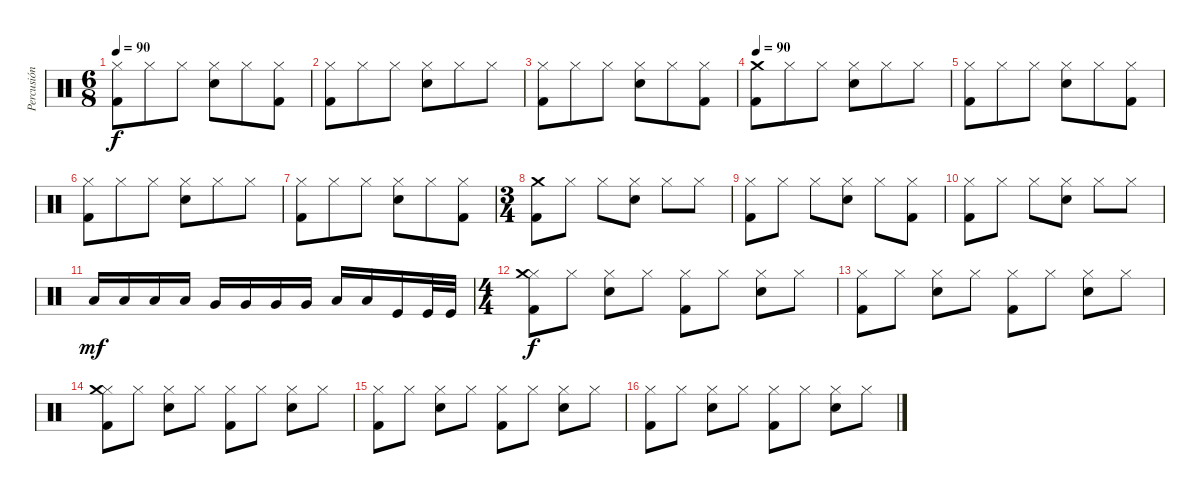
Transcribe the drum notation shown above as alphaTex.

\track ("Percusión" "Percusión") {instrument percussion}
\staff {score}
\articulation defaults
\ts (6 8)
\tempo 90
\clef neutral
\ks c
("Hi-Hat (closed)" "Kick (hit) 2").8{dy f} "Hi-Hat (closed)".8 "Hi-Hat (closed)".8 ("Hi-Hat (closed)" "Snare (hit) 2").8 "Hi-Hat (closed)".8 ("Hi-Hat (closed)" "Kick (hit) 2").8 |
("Hi-Hat (closed)" "Kick (hit) 2").8 "Hi-Hat (closed)".8 "Hi-Hat (closed)".8 ("Hi-Hat (closed)" "Snare (hit) 2").8 "Hi-Hat (closed)".8 "Hi-Hat (closed)".8 |
("Hi-Hat (closed)" "Kick (hit) 2").8 "Hi-Hat (closed)".8 "Hi-Hat (closed)".8 ("Hi-Hat (closed)" "Snare (hit) 2").8 "Hi-Hat (closed)".8 ("Hi-Hat (closed)" "Kick (hit) 2").8 |
\tempo 90
("Crash medium (hit)" "Kick (hit) 2").8 "Hi-Hat (closed)".8 "Hi-Hat (closed)".8 ("Hi-Hat (closed)" "Snare (hit) 2").8 "Hi-Hat (closed)".8 "Hi-Hat (closed)".8 |
("Hi-Hat (closed)" "Kick (hit) 2").8 "Hi-Hat (closed)".8 "Hi-Hat (closed)".8 ("Hi-Hat (closed)" "Snare (hit) 2").8 "Hi-Hat (closed)".8 ("Hi-Hat (closed)" "Kick (hit) 2").8 |
("Hi-Hat (closed)" "Kick (hit) 2").8 "Hi-Hat (closed)".8 "Hi-Hat (closed)".8 ("Hi-Hat (closed)" "Snare (hit) 2").8 "Hi-Hat (closed)".8 "Hi-Hat (closed)".8 |
("Hi-Hat (closed)" "Kick (hit) 2").8 "Hi-Hat (closed)".8 "Hi-Hat (closed)".8 ("Hi-Hat (closed)" "Snare (hit) 2").8 "Hi-Hat (closed)".8 ("Hi-Hat (closed)" "Kick (hit) 2").8 |
\ts (3 4)
("Crash medium (hit)" "Kick (hit) 2").8 "Hi-Hat (closed)".8 "Hi-Hat (closed)".8 ("Hi-Hat (closed)" "Snare (hit) 2").8 "Hi-Hat (closed)".8 "Hi-Hat (closed)".8 |
("Hi-Hat (closed)" "Kick (hit) 2").8 "Hi-Hat (closed)".8 "Hi-Hat (closed)".8 ("Hi-Hat (closed)" "Snare (hit) 2").8 "Hi-Hat (closed)".8 ("Hi-Hat (closed)" "Kick (hit) 2").8 |
("Hi-Hat (closed)" "Kick (hit) 2").8 "Hi-Hat (closed)".8 "Hi-Hat (closed)".8 ("Hi-Hat (closed)" "Snare (hit) 2").8 "Hi-Hat (closed)".8 "Hi-Hat (closed)".8 |
"Low Tom (hit)".16{dy mf} "Low Tom (hit)".16 "Low Tom (hit)".16 "Low Tom (hit)".16 "Very Low Tom (hit)".16 "Very Low Tom (hit)".16 "Very Low Tom (hit)".16 "Very Low Tom (hit)".16 "Low Floor Tom (hit)".16 "Low Floor Tom (hit)".16 "Kick (hit)".16 "Kick (hit)".32 "Kick (hit)".32 |
\ts (4 4)
("Kick (hit) 2" "Hi-Hat (closed)" "Crash medium (hit)").8{dy f} "Hi-Hat (closed)".8 ("Snare (hit) 2" "Hi-Hat (closed)").8 "Hi-Hat (closed)".8 ("Kick (hit) 2" "Hi-Hat (closed)").8 "Hi-Hat (closed)".8 ("Snare (hit) 2" "Hi-Hat (closed)").8 "Hi-Hat (closed)".8 |
("Kick (hit) 2" "Hi-Hat (closed)").8 "Hi-Hat (closed)".8 ("Snare (hit) 2" "Hi-Hat (closed)").8 "Hi-Hat (closed)".8 ("Kick (hit) 2" "Hi-Hat (closed)").8 "Hi-Hat (closed)".8 ("Snare (hit) 2" "Hi-Hat (closed)").8 "Hi-Hat (closed)".8 |
("Kick (hit) 2" "Hi-Hat (closed)" "Crash medium (hit)").8 "Hi-Hat (closed)".8 ("Snare (hit) 2" "Hi-Hat (closed)").8 "Hi-Hat (closed)".8 ("Kick (hit) 2" "Hi-Hat (closed)").8 "Hi-Hat (closed)".8 ("Snare (hit) 2" "Hi-Hat (closed)").8 "Hi-Hat (closed)".8 |
("Kick (hit) 2" "Hi-Hat (closed)").8 "Hi-Hat (closed)".8 ("Snare (hit) 2" "Hi-Hat (closed)").8 "Hi-Hat (closed)".8 ("Kick (hit) 2" "Hi-Hat (closed)").8 "Hi-Hat (closed)".8 ("Snare (hit) 2" "Hi-Hat (closed)").8 "Hi-Hat (closed)".8 |
("Kick (hit) 2" "Hi-Hat (closed)").8 "Hi-Hat (closed)".8 ("Snare (hit) 2" "Hi-Hat (closed)").8 "Hi-Hat (closed)".8 ("Kick (hit) 2" "Hi-Hat (closed)").8 "Hi-Hat (closed)".8 ("Snare (hit) 2" "Hi-Hat (closed)").8 "Hi-Hat (closed)".8
